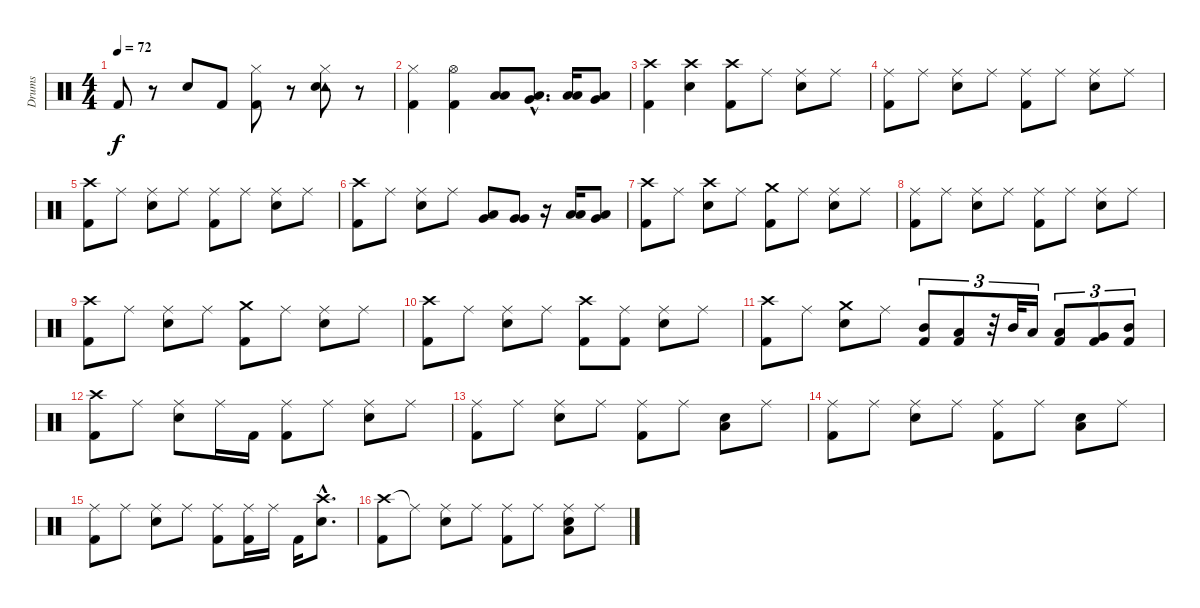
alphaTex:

\track ("Drums" "Drums") {instrument percussion}
\staff {score}
\articulation defaults
\ts (4 4)
\tempo 72
\clef neutral
\ks c "Kick (hit) 2".8{dy f}
r.8 "Snare (hit) 2".8 "Kick (hit) 2".8 ("Hi-Hat (closed)" "Kick (hit) 2").8 r.8 ("Hi-Hat (closed)" "Tambourine (hit)" "Snare (hit) 2").8 r.8 |
("Hi-Hat (closed)" "Kick (hit) 2").4 ("Hi-Hat (open)" "Kick (hit) 2").4 ("Low Tom (hit)" "Low Floor Tom (hit)").8 ("Very Low Tom (hit)"{hac} "Low Floor Tom (hit)"{hac}).8{d} ("Low Tom (hit)" "Low Floor Tom (hit)").16 ("Very Low Tom (hit)" "Low Floor Tom (hit)").8 |
("Crash high (hit)" "Kick (hit) 2").4 ("Crash high (hit)" "Snare (hit) 2").4 ("Crash high (hit)" "Kick (hit) 2").8 "Ride (middle)".8 ("Ride (middle)" "Snare (hit) 2").8 "Ride (middle)".8 |
("Ride (middle)" "Kick (hit) 2").8 "Ride (middle)".8 ("Ride (middle)" "Snare (hit) 2").8 "Ride (middle)".8 ("Ride (middle)" "Kick (hit) 2").8 "Ride (middle)".8 ("Ride (middle)" "Snare (hit) 2").8 "Ride (middle)".8 |
("Crash high (hit)" "Kick (hit) 2").8 "Ride (middle)".8 ("Ride (middle)" "Snare (hit) 2").8 "Ride (middle)".8 ("Ride (middle)" "Kick (hit) 2").8 "Ride (middle)".8 ("Ride (middle)" "Snare (hit) 2").8 "Ride (middle)".8 |
("Crash high (hit)" "Kick (hit) 2").8 "Ride (middle)".8 ("Ride (middle)" "Snare (hit) 2").8 "Ride (middle)".8 ("Very Low Tom (hit)" "Low Tom (hit)").8 ("Very Low Tom (hit)" "Very Low Tom (hit)").8 r.16 ("Low Tom (hit)" "Low Tom (hit)").16 ("Low Floor Tom (hit)" "Very Low Tom (hit)").8 |
("Crash high (hit)" "Kick (hit) 2").8 "Ride (middle)".8 ("Crash high (hit)" "Snare (hit) 2").8 "Ride (middle)".8 ("Crash medium (hit)" "Kick (hit) 2").8 "Ride (middle)".8 ("Ride (middle)" "Snare (hit) 2").8 "Ride (middle)".8 |
("Ride (middle)" "Kick (hit) 2").8 "Ride (middle)".8 ("Ride (middle)" "Snare (hit) 2").8 "Ride (middle)".8 ("Ride (middle)" "Kick (hit) 2").8 "Ride (middle)".8 ("Ride (middle)" "Snare (hit) 2").8 "Ride (middle)".8 |
("Crash high (hit)" "Kick (hit) 2").8 "Ride (middle)".8 ("Ride (middle)" "Snare (hit) 2").8 "Ride (middle)".8 ("Crash medium (hit)" "Kick (hit) 2").8 "Ride (middle)".8 ("Ride (middle)" "Snare (hit) 2").8 "Ride (middle)".8 |
("Crash high (hit)" "Kick (hit) 2").8 "Ride (middle)".8 ("Ride (middle)" "Snare (hit) 2").8 "Ride (middle)".8 ("Crash high (hit)" "Kick (hit) 2").8 ("Ride (middle)" "Kick (hit) 2").8 ("Ride (middle)" "Snare (hit) 2").8 "Ride (middle)".8 |
("Crash high (hit)" "Kick (hit) 2").8 "Ride (middle)".8 ("Crash medium (hit)" "Snare (hit) 2").8 "Ride (middle)".8 ("Mid Tom (hit)" "Kick (hit) 2").8{tu (3 2)} ("Low Tom (hit)" "Kick (hit) 2").8{tu (3 2)} r.32{tu (3 2)} "Mid Tom (hit)".32{tu (3 2)} "Low Tom (hit)".16{tu (3 2)} ("Low Tom (hit)" "Kick (hit) 2").8{tu (3 2)} ("Very Low Tom (hit)" "Kick (hit) 2").8{tu (3 2)} ("Mid Tom (hit)" "Kick (hit) 2").8{tu (3 2)} |
("Crash high (hit)" "Kick (hit) 2").8 "Ride (middle)".8 ("Ride (middle)" "Snare (hit) 2").8 "Ride (middle)".16 "Kick (hit) 2".16 ("Ride (middle)" "Kick (hit) 2").8 "Ride (middle)".8 ("Ride (middle)" "Snare (hit) 2").8 "Ride (middle)".8 |
("Ride (middle)" "Kick (hit) 2").8 "Ride (middle)".8 ("Ride (middle)" "Snare (hit) 2").8 "Ride (middle)".8 ("Ride (middle)" "Kick (hit) 2").8 "Ride (middle)".8 ("Low Floor Tom (hit)" "Snare (hit) 2").8 "Ride (middle)".8 |
("Ride (middle)" "Kick (hit) 2").8 "Ride (middle)".8 ("Ride (middle)" "Snare (hit) 2").8 "Ride (middle)".8 ("Ride (middle)" "Kick (hit) 2").8 "Ride (middle)".8 ("Low Floor Tom (hit)" "Snare (hit) 2").8 "Ride (middle)".8 |
("Ride (middle)" "Kick (hit) 2").8 "Ride (middle)".8 ("Ride (middle)" "Snare (hit) 2").8 "Ride (middle)".8 ("Ride (middle)" "Kick (hit) 2").8 ("Ride (middle)" "Kick (hit) 2").16 "Ride (middle)".16 "Kick (hit) 2".16 ("Crash high (hit)"{hac} "Snare (hit) 2"{hac}).8{d} |
("Crash high (hit)" "Kick (hit) 2").8 "Ride (middle)"{t}.8 ("Ride (middle)" "Snare (hit) 2").8 "Ride (middle)".8 ("Ride (middle)" "Kick (hit) 2").8 "Ride (middle)".8 ("Ride (middle)" "Low Floor Tom (hit)" "Snare (hit) 2").8 "Ride (middle)".8
